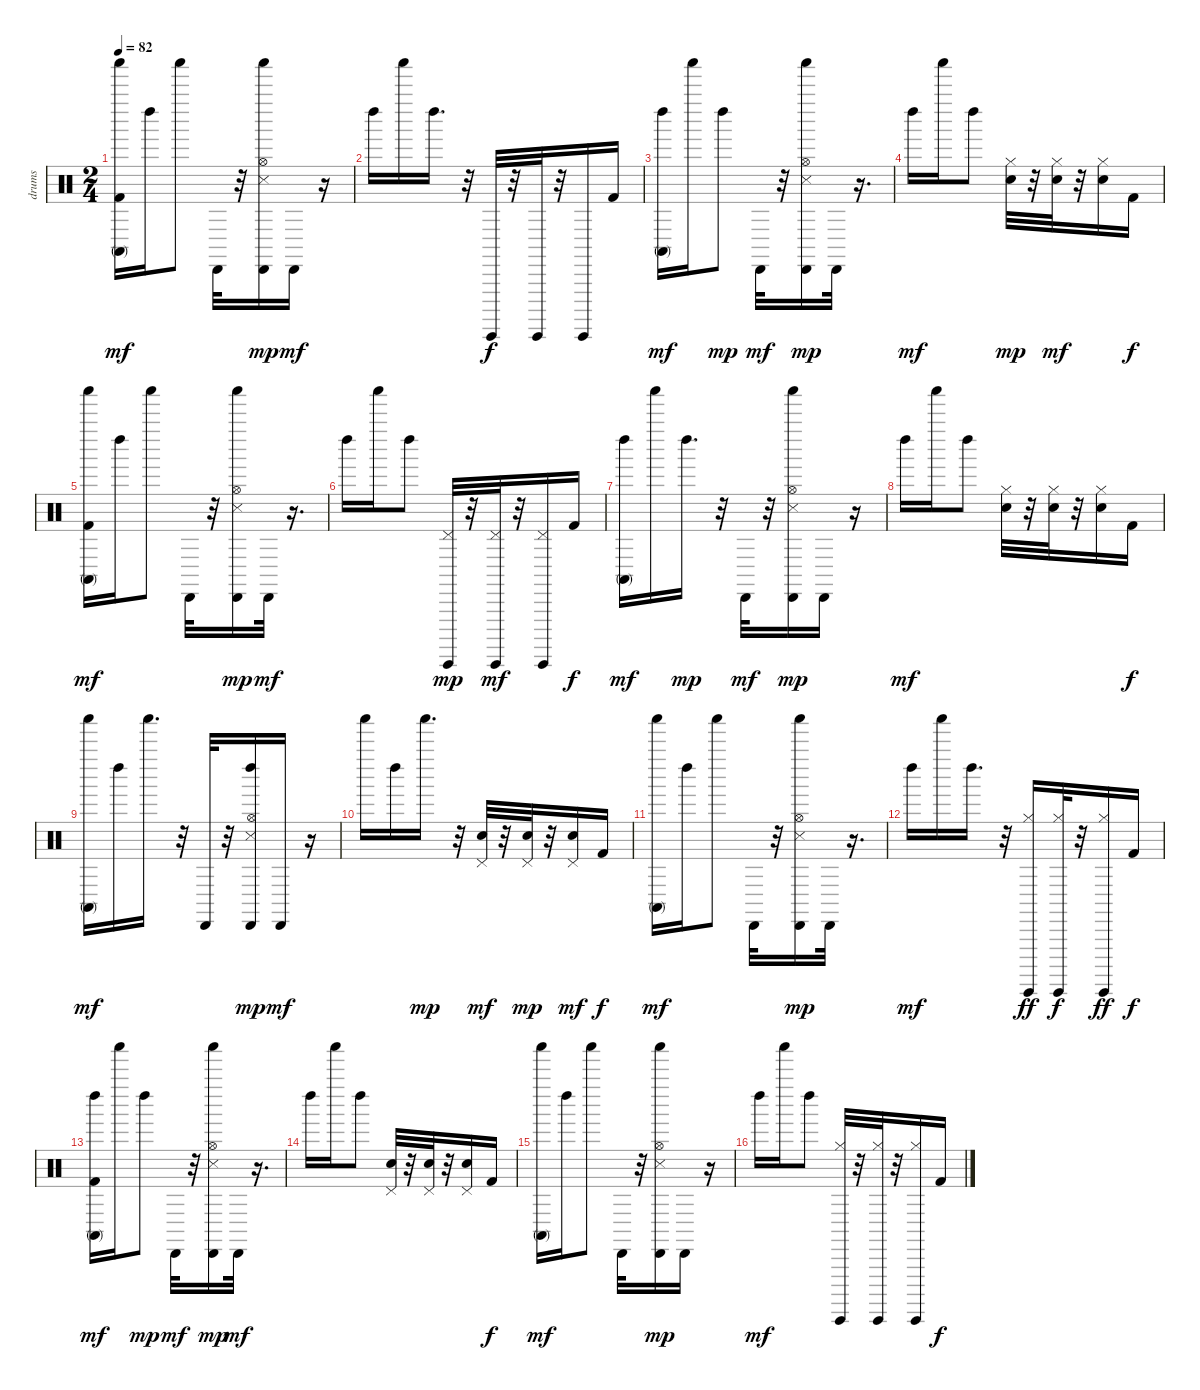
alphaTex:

\track ("drums" "drums") {instrument percussion}
\staff {score}
\articulation defaults
\ts (2 4)
\tempo 82
\clef neutral
\ks c
("Kick (hit) 2" "Shaker (hit)" "Conga high (mute)").16{dy mf} "Left Maraca (hit)".16 "Shaker (hit)".8 "Cabasa (hit)".32 r.32 ("Snare (side stick) 3" "Shaker (hit)" "Hi-Hat (open)" "Cabasa (hit)").16{dy mp} "Cabasa (hit)".16{dy mf} r.16 |
"Left Maraca (hit)".16 "Shaker (hit)".16 "Left Maraca (hit)".16{d} r.32 "Guiro (hit)".32{dy f} r.32 "Guiro (hit)".32 r.32 "Guiro (hit)".16 "Kick (hit) 2".16 |
("Left Maraca (hit)" "Conga high (mute)").16{dy mf} "Shaker (hit)".16 "Left Maraca (hit)".8{dy mp} "Cabasa (hit)".32{dy mf} r.32 ("Snare (side stick) 3" "Shaker (hit)" "Hi-Hat (open)" "Cabasa (hit)").16{dy mp} "Cabasa (hit)".32 r.16{d} |
"Left Maraca (hit)".16{dy mf} "Shaker (hit)".16 "Left Maraca (hit)".8 ("Hand Clap (hit)" "Hi-Hat (closed)").32{dy mp} r.32 ("Hi-Hat (closed)" "Hand Clap (hit)").32{dy mf} r.32 ("Hi-Hat (closed)" "Hand Clap (hit)").16 "Kick (hit) 2".16{dy f} |
("Kick (hit) 2" "Shaker (hit)" "Conga high (mute)").16{dy mf} "Left Maraca (hit)".16 "Shaker (hit)".8 "Cabasa (hit)".32 r.32 ("Cabasa (hit)" "Hi-Hat (open)" "Shaker (hit)" "Snare (side stick) 3").16{dy mp} "Cabasa (hit)".32{dy mf} r.16{d} |
"Left Maraca (hit)".16 "Shaker (hit)".16 "Left Maraca (hit)".8 ("Pedal Hi-Hat (hit)" "Guiro (hit)").32{dy mp} r.32 ("Guiro (hit)" "Pedal Hi-Hat (hit)").32{dy mf} r.32 ("Guiro (hit)" "Pedal Hi-Hat (hit)").16 "Kick (hit) 2".16{dy f} |
("Left Maraca (hit)" "Conga high (mute)").16{dy mf} "Shaker (hit)".16 "Left Maraca (hit)".16{d dy mp} r.32 "Cabasa (hit)".32{dy mf} r.32 ("Cabasa (hit)" "Snare (side stick) 3" "Shaker (hit)" "Hi-Hat (open)").16{dy mp} "Cabasa (hit)".16 r.16 |
"Left Maraca (hit)".16{dy mf} "Shaker (hit)".16 "Left Maraca (hit)".8 ("Hand Clap (hit)" "Hi-Hat (closed)").32 r.32 ("Hi-Hat (closed)" "Hand Clap (hit)").32 r.32 ("Hi-Hat (closed)" "Hand Clap (hit)").16 "Kick (hit) 2".16{dy f} |
("Shaker (hit)" "Conga high (mute)").16{dy mf} "Left Maraca (hit)".16 "Shaker (hit)".16{d} r.32 "Cabasa (hit)".32 r.32 ("Hi-Hat (open)" "Left Maraca (hit)" "Snare (side stick) 3" "Cabasa (hit)").16{dy mp} "Cabasa (hit)".16{dy mf} r.16 |
"Shaker (hit)".16 "Left Maraca (hit)".16 "Shaker (hit)".16{d dy mp} r.32 ("Hand Clap (hit)" "Pedal Hi-Hat (hit)").32{dy mf} r.32 ("Pedal Hi-Hat (hit)" "Hand Clap (hit)").32{dy mp} r.32 ("Pedal Hi-Hat (hit)" "Hand Clap (hit)").16{dy mf} "Kick (hit) 2".16{dy f} |
("Shaker (hit)" "Conga high (mute)").16{dy mf} "Left Maraca (hit)".16 "Shaker (hit)".8 "Cabasa (hit)".32 r.32 ("Snare (side stick) 3" "Shaker (hit)" "Hi-Hat (open)" "Cabasa (hit)").16{dy mp} "Cabasa (hit)".32 r.16{d} |
"Left Maraca (hit)".16{dy mf} "Shaker (hit)".16 "Left Maraca (hit)".16{d} r.32 ("Hi-Hat (closed)" "Guiro (hit)").16{dy ff} ("Guiro (hit)" "Hi-Hat (closed)").32{dy f} r.32 ("Guiro (hit)" "Hi-Hat (closed)").16{dy ff} "Kick (hit) 2".16{dy f} |
("Kick (hit) 2" "Left Maraca (hit)" "Conga high (mute)").16{dy mf} "Shaker (hit)".16 "Left Maraca (hit)".8{dy mp} "Cabasa (hit)".32{dy mf} r.32 ("Cabasa (hit)" "Snare (side stick) 3" "Shaker (hit)" "Hi-Hat (open)").16{dy mp} "Cabasa (hit)".32{dy mf} r.16{d} |
"Left Maraca (hit)".16 "Shaker (hit)".16 "Left Maraca (hit)".8 ("Hand Clap (hit)" "Pedal Hi-Hat (hit)").32 r.32 ("Pedal Hi-Hat (hit)" "Hand Clap (hit)").32 r.32 ("Pedal Hi-Hat (hit)" "Hand Clap (hit)").16 "Kick (hit) 2".16{dy f} |
("Shaker (hit)" "Conga high (mute)").16{dy mf} "Left Maraca (hit)".16 "Shaker (hit)".8 "Cabasa (hit)".32 r.32 ("Cabasa (hit)" "Snare (side stick) 3" "Shaker (hit)" "Hi-Hat (open)").16{dy mp} "Cabasa (hit)".16 r.16 |
"Left Maraca (hit)".16{dy mf} "Shaker (hit)".16 "Left Maraca (hit)".8 ("Hi-Hat (closed)" "Guiro (hit)").32 r.32 ("Guiro (hit)" "Hi-Hat (closed)").32 r.32 ("Guiro (hit)" "Hi-Hat (closed)").16 "Kick (hit) 2".16{dy f}
